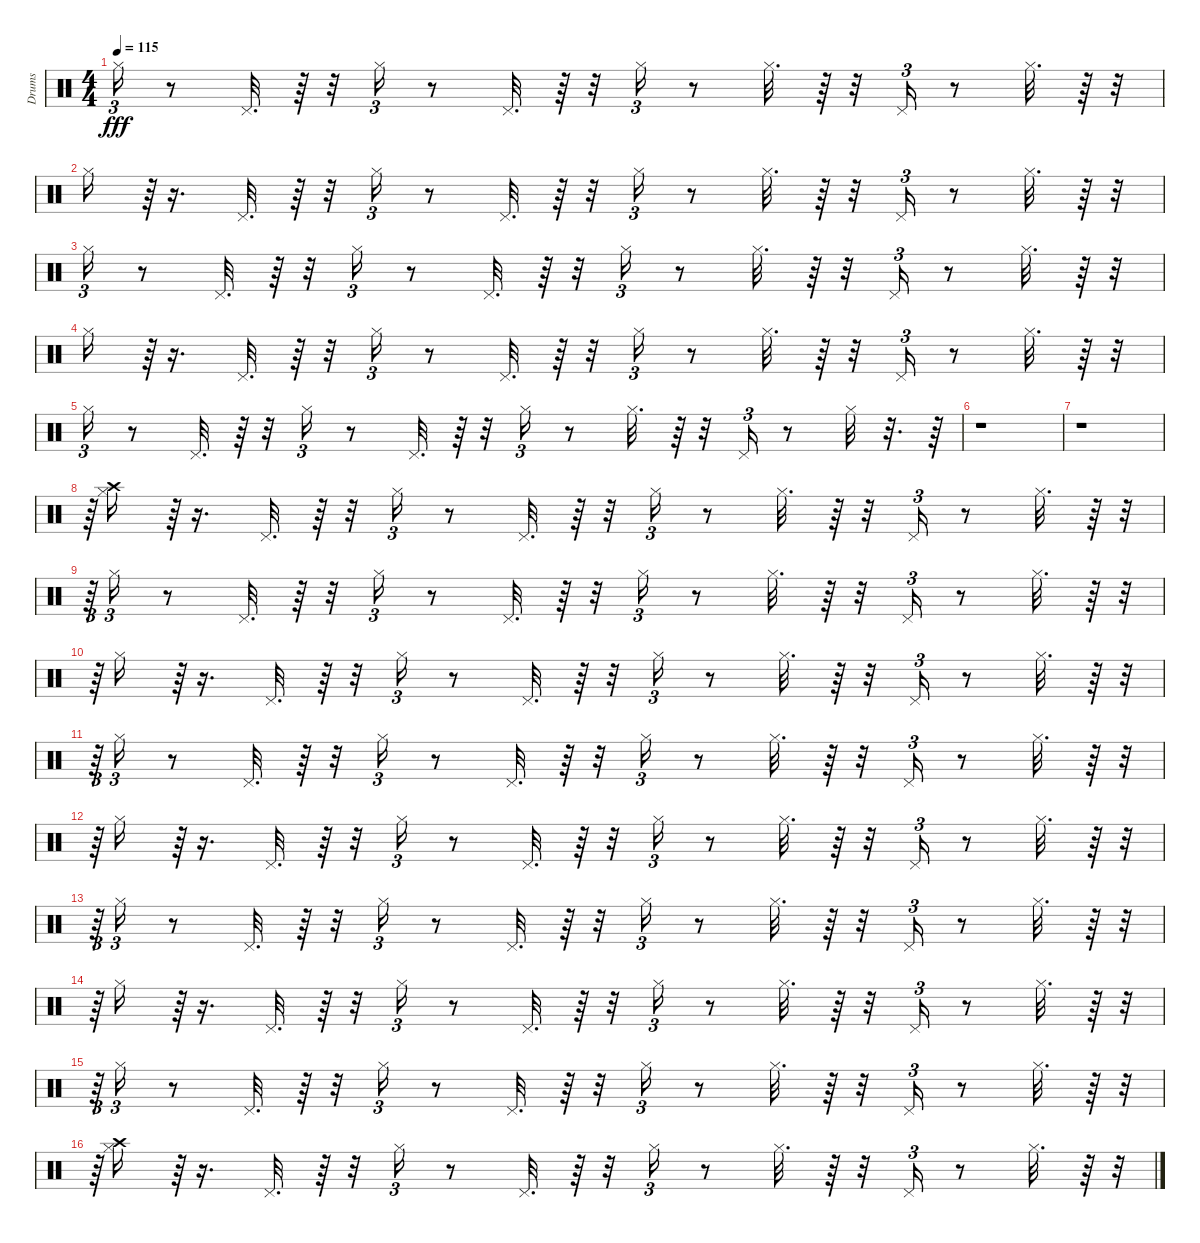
\track ("Drums" "Drums") {instrument percussion}
\staff {score}
\articulation defaults
\ts (4 4)
\tempo 115
\clef neutral
\ks c "Hi-Hat (closed)".16{tu (3 2) dy fff}
r.8 "Pedal Hi-Hat (hit)".32{d} r.64 r.32 "Hi-Hat (closed)".16{tu (3 2)} r.8 "Pedal Hi-Hat (hit)".32{d} r.64 r.32 "Hi-Hat (closed)".16{tu (3 2)} r.8 "Hi-Hat (closed)".32{d} r.64 r.32 "Pedal Hi-Hat (hit)".16{tu (3 2)} r.8 "Hi-Hat (closed)".32{d} r.64 r.32 |
"Hi-Hat (closed)".16 r.64{tu (3 2)} r.16{d} "Pedal Hi-Hat (hit)".32{d} r.64 r.32 "Hi-Hat (closed)".16{tu (3 2)} r.8 "Pedal Hi-Hat (hit)".32{d} r.64 r.32 "Hi-Hat (closed)".16{tu (3 2)} r.8 "Hi-Hat (closed)".32{d} r.64 r.32 "Pedal Hi-Hat (hit)".16{tu (3 2)} r.8 "Hi-Hat (closed)".32{d} r.64 r.32 |
"Hi-Hat (closed)".16{tu (3 2)} r.8 "Pedal Hi-Hat (hit)".32{d} r.64 r.32 "Hi-Hat (closed)".16{tu (3 2)} r.8 "Pedal Hi-Hat (hit)".32{d} r.64 r.32 "Hi-Hat (closed)".16{tu (3 2)} r.8 "Hi-Hat (closed)".32{d} r.64 r.32 "Pedal Hi-Hat (hit)".16{tu (3 2)} r.8 "Hi-Hat (closed)".32{d} r.64 r.32 |
"Hi-Hat (closed)".16 r.64{tu (3 2)} r.16{d} "Pedal Hi-Hat (hit)".32{d} r.64 r.32 "Hi-Hat (closed)".16{tu (3 2)} r.8 "Pedal Hi-Hat (hit)".32{d} r.64 r.32 "Hi-Hat (closed)".16{tu (3 2)} r.8 "Hi-Hat (closed)".32{d} r.64 r.32 "Pedal Hi-Hat (hit)".16{tu (3 2)} r.8 "Hi-Hat (closed)".32{d} r.64 r.32 |
"Hi-Hat (closed)".16{tu (3 2)} r.8 "Pedal Hi-Hat (hit)".32{d} r.64 r.32 "Hi-Hat (closed)".16{tu (3 2)} r.8 "Pedal Hi-Hat (hit)".32{d} r.64 r.32 "Hi-Hat (closed)".16{tu (3 2)} r.8 "Hi-Hat (closed)".32{d} r.64 r.32 "Pedal Hi-Hat (hit)".16{tu (3 2)} r.8 "Hi-Hat (closed)".32 r.32{d} r.64 |
r.1 |
r.1 |
r.64{tu (3 2)} ("Crash high (hit)" "Hi-Hat (closed)").16 r.64{tu (3 2)} r.16{d} "Pedal Hi-Hat (hit)".32{d} r.64 r.32 "Hi-Hat (closed)".16{tu (3 2)} r.8 "Pedal Hi-Hat (hit)".32{d} r.64 r.32 "Hi-Hat (closed)".16{tu (3 2)} r.8 "Hi-Hat (closed)".32{d} r.64 r.32 "Pedal Hi-Hat (hit)".16{tu (3 2)} r.8 "Hi-Hat (closed)".32{d} r.64 r.32{tu (3 2)} |
r.64{tu (3 2)} "Hi-Hat (closed)".16{tu (3 2)} r.8 "Pedal Hi-Hat (hit)".32{d} r.64 r.32 "Hi-Hat (closed)".16{tu (3 2)} r.8 "Pedal Hi-Hat (hit)".32{d} r.64 r.32 "Hi-Hat (closed)".16{tu (3 2)} r.8 "Hi-Hat (closed)".32{d} r.64 r.32 "Pedal Hi-Hat (hit)".16{tu (3 2)} r.8 "Hi-Hat (closed)".32{d} r.64 r.32{tu (3 2)} |
r.64{tu (3 2)} "Hi-Hat (closed)".16 r.64{tu (3 2)} r.16{d} "Pedal Hi-Hat (hit)".32{d} r.64 r.32 "Hi-Hat (closed)".16{tu (3 2)} r.8 "Pedal Hi-Hat (hit)".32{d} r.64 r.32 "Hi-Hat (closed)".16{tu (3 2)} r.8 "Hi-Hat (closed)".32{d} r.64 r.32 "Pedal Hi-Hat (hit)".16{tu (3 2)} r.8 "Hi-Hat (closed)".32{d} r.64 r.32{tu (3 2)} |
r.64{tu (3 2)} "Hi-Hat (closed)".16{tu (3 2)} r.8 "Pedal Hi-Hat (hit)".32{d} r.64 r.32 "Hi-Hat (closed)".16{tu (3 2)} r.8 "Pedal Hi-Hat (hit)".32{d} r.64 r.32 "Hi-Hat (closed)".16{tu (3 2)} r.8 "Hi-Hat (closed)".32{d} r.64 r.32 "Pedal Hi-Hat (hit)".16{tu (3 2)} r.8 "Hi-Hat (closed)".32{d} r.64 r.32{tu (3 2)} |
r.64{tu (3 2)} "Hi-Hat (closed)".16 r.64{tu (3 2)} r.16{d} "Pedal Hi-Hat (hit)".32{d} r.64 r.32 "Hi-Hat (closed)".16{tu (3 2)} r.8 "Pedal Hi-Hat (hit)".32{d} r.64 r.32 "Hi-Hat (closed)".16{tu (3 2)} r.8 "Hi-Hat (closed)".32{d} r.64 r.32 "Pedal Hi-Hat (hit)".16{tu (3 2)} r.8 "Hi-Hat (closed)".32{d} r.64 r.32{tu (3 2)} |
r.64{tu (3 2)} "Hi-Hat (closed)".16{tu (3 2)} r.8 "Pedal Hi-Hat (hit)".32{d} r.64 r.32 "Hi-Hat (closed)".16{tu (3 2)} r.8 "Pedal Hi-Hat (hit)".32{d} r.64 r.32 "Hi-Hat (closed)".16{tu (3 2)} r.8 "Hi-Hat (closed)".32{d} r.64 r.32 "Pedal Hi-Hat (hit)".16{tu (3 2)} r.8 "Hi-Hat (closed)".32{d} r.64 r.32{tu (3 2)} |
r.64{tu (3 2)} "Hi-Hat (closed)".16 r.64{tu (3 2)} r.16{d} "Pedal Hi-Hat (hit)".32{d} r.64 r.32 "Hi-Hat (closed)".16{tu (3 2)} r.8 "Pedal Hi-Hat (hit)".32{d} r.64 r.32 "Hi-Hat (closed)".16{tu (3 2)} r.8 "Hi-Hat (closed)".32{d} r.64 r.32 "Pedal Hi-Hat (hit)".16{tu (3 2)} r.8 "Hi-Hat (closed)".32{d} r.64 r.32{tu (3 2)} |
r.64{tu (3 2)} "Hi-Hat (closed)".16{tu (3 2)} r.8 "Pedal Hi-Hat (hit)".32{d} r.64 r.32 "Hi-Hat (closed)".16{tu (3 2)} r.8 "Pedal Hi-Hat (hit)".32{d} r.64 r.32 "Hi-Hat (closed)".16{tu (3 2)} r.8 "Hi-Hat (closed)".32{d} r.64 r.32 "Pedal Hi-Hat (hit)".16{tu (3 2)} r.8 "Hi-Hat (closed)".32{d} r.64 r.32{tu (3 2)} |
r.64{tu (3 2)} ("Crash high (hit)" "Hi-Hat (closed)").16 r.64{tu (3 2)} r.16{d} "Pedal Hi-Hat (hit)".32{d} r.64 r.32 "Hi-Hat (closed)".16{tu (3 2)} r.8 "Pedal Hi-Hat (hit)".32{d} r.64 r.32 "Hi-Hat (closed)".16{tu (3 2)} r.8 "Hi-Hat (closed)".32{d} r.64 r.32 "Pedal Hi-Hat (hit)".16{tu (3 2)} r.8 "Hi-Hat (closed)".32{d} r.64 r.32{tu (3 2)}
